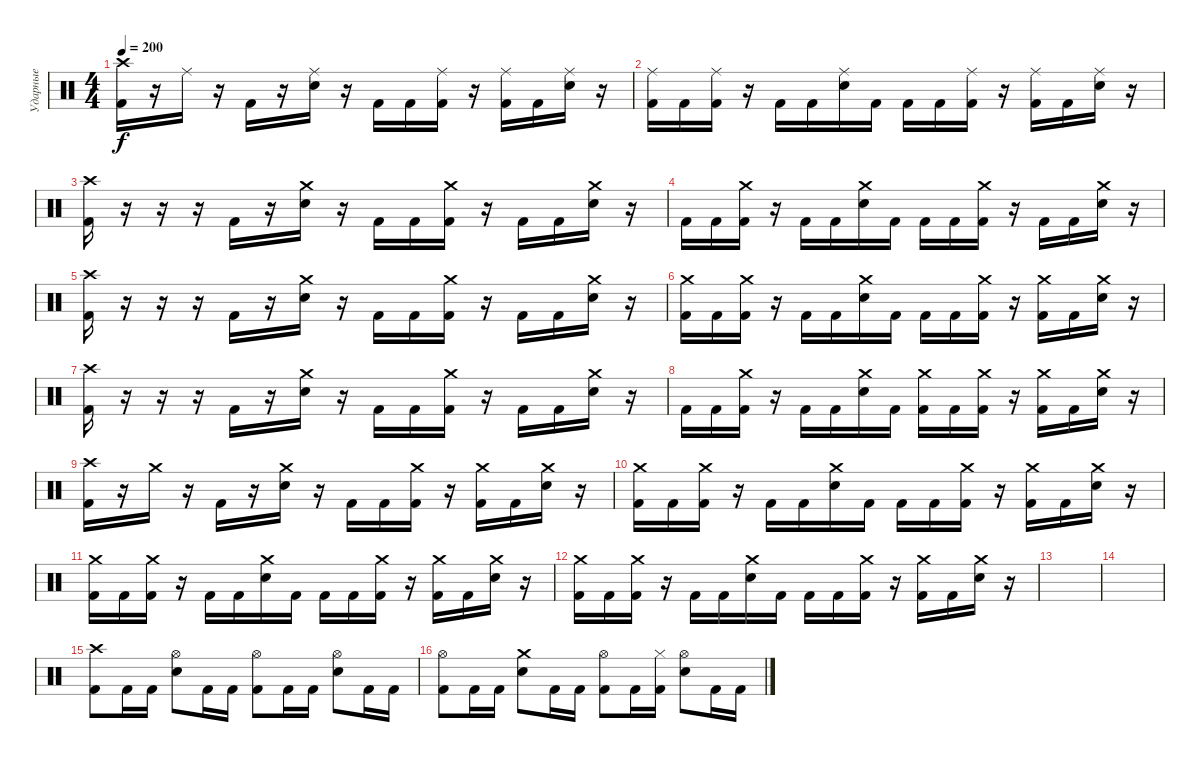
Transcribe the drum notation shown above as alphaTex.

\track ("Ударные" "Ударные") {instrument percussion}
\staff {score}
\articulation defaults
\ts (4 4)
\tempo 200
\clef neutral
\ks c
("Crash high (hit)" "Kick (hit) 2").16{dy f} r.16 "Ride (middle)".16 r.16 "Kick (hit) 2".16 r.16 ("Ride (middle)" "Electric Snare (hit)").16 r.16 "Kick (hit) 2".16 "Kick (hit) 2".16 ("Ride (middle)" "Kick (hit) 2").16 r.16 ("Ride (middle)" "Kick (hit) 2").16 "Kick (hit) 2".16 ("Ride (middle)" "Electric Snare (hit)").16 r.16 |
("Ride (middle)" "Kick (hit) 2").16 "Kick (hit) 2".16 ("Ride (middle)" "Kick (hit) 2").16 r.16 "Kick (hit) 2".16 "Kick (hit) 2".16 ("Ride (middle)" "Electric Snare (hit)").16 "Kick (hit) 2".16 "Kick (hit) 2".16 "Kick (hit) 2".16 ("Ride (middle)" "Kick (hit) 2").16 r.16 ("Ride (middle)" "Kick (hit) 2").16 "Kick (hit) 2".16 ("Ride (middle)" "Electric Snare (hit)").16 r.16 |
("Crash high (hit)" "Kick (hit) 2").16 r.16 r.16 r.16 "Kick (hit) 2".16 r.16 ("Crash medium (hit)" "Electric Snare (hit)").16 r.16 "Kick (hit) 2".16 "Kick (hit) 2".16 ("Crash medium (hit)" "Kick (hit) 2").16 r.16 "Kick (hit) 2".16 "Kick (hit) 2".16 ("Crash medium (hit)" "Electric Snare (hit)").16 r.16 |
"Kick (hit) 2".16 "Kick (hit) 2".16 ("Crash medium (hit)" "Kick (hit) 2").16 r.16 "Kick (hit) 2".16 "Kick (hit) 2".16 ("Crash medium (hit)" "Electric Snare (hit)").16 "Kick (hit) 2".16 "Kick (hit) 2".16 "Kick (hit) 2".16 ("Crash medium (hit)" "Kick (hit) 2").16 r.16 "Kick (hit) 2".16 "Kick (hit) 2".16 ("Crash medium (hit)" "Electric Snare (hit)").16 r.16 |
("Crash high (hit)" "Kick (hit) 2").16 r.16 r.16 r.16 "Kick (hit) 2".16 r.16 ("Crash medium (hit)" "Electric Snare (hit)").16 r.16 "Kick (hit) 2".16 "Kick (hit) 2".16 ("Crash medium (hit)" "Kick (hit) 2").16 r.16 "Kick (hit) 2".16 "Kick (hit) 2".16 ("Crash medium (hit)" "Electric Snare (hit)").16 r.16 |
("Crash medium (hit)" "Kick (hit) 2").16 "Kick (hit) 2".16 ("Crash medium (hit)" "Kick (hit) 2").16 r.16 "Kick (hit) 2".16 "Kick (hit) 2".16 ("Crash medium (hit)" "Electric Snare (hit)").16 "Kick (hit) 2".16 "Kick (hit) 2".16 "Kick (hit) 2".16 ("Crash medium (hit)" "Kick (hit) 2").16 r.16 ("Crash medium (hit)" "Kick (hit) 2").16 "Kick (hit) 2".16 ("Crash medium (hit)" "Electric Snare (hit)").16 r.16 |
("Crash high (hit)" "Kick (hit) 2").16 r.16 r.16 r.16 "Kick (hit) 2".16 r.16 ("Crash medium (hit)" "Electric Snare (hit)").16 r.16 "Kick (hit) 2".16 "Kick (hit) 2".16 ("Crash medium (hit)" "Kick (hit) 2").16 r.16 "Kick (hit) 2".16 "Kick (hit) 2".16 ("Crash medium (hit)" "Electric Snare (hit)").16 r.16 |
"Kick (hit) 2".16 "Kick (hit) 2".16 ("Crash medium (hit)" "Kick (hit) 2").16 r.16 "Kick (hit) 2".16 "Kick (hit) 2".16 ("Crash medium (hit)" "Electric Snare (hit)").16 "Kick (hit) 2".16 ("Crash medium (hit)" "Kick (hit) 2").16 "Kick (hit) 2".16 ("Crash medium (hit)" "Kick (hit) 2").16 r.16 ("Crash medium (hit)" "Kick (hit) 2").16 "Kick (hit) 2".16 ("Crash medium (hit)" "Electric Snare (hit)").16 r.16 |
("Crash high (hit)" "Kick (hit) 2").16 r.16 "Crash medium (hit)".16 r.16 "Kick (hit) 2".16 r.16 ("Crash medium (hit)" "Electric Snare (hit)").16 r.16 "Kick (hit) 2".16 "Kick (hit) 2".16 ("Crash medium (hit)" "Kick (hit) 2").16 r.16 ("Crash medium (hit)" "Kick (hit) 2").16 "Kick (hit) 2".16 ("Crash medium (hit)" "Electric Snare (hit)").16 r.16 |
("Crash medium (hit)" "Kick (hit) 2").16 "Kick (hit) 2".16 ("Crash medium (hit)" "Kick (hit) 2").16 r.16 "Kick (hit) 2".16 "Kick (hit) 2".16 ("Crash medium (hit)" "Electric Snare (hit)").16 "Kick (hit) 2".16 "Kick (hit) 2".16 "Kick (hit) 2".16 ("Crash medium (hit)" "Kick (hit) 2").16 r.16 ("Crash medium (hit)" "Kick (hit) 2").16 "Kick (hit) 2".16 ("Crash medium (hit)" "Electric Snare (hit)").16 r.16 |
("Crash medium (hit)" "Kick (hit) 2").16 "Kick (hit) 2".16 ("Crash medium (hit)" "Kick (hit) 2").16 r.16 "Kick (hit) 2".16 "Kick (hit) 2".16 ("Crash medium (hit)" "Electric Snare (hit)").16 "Kick (hit) 2".16 "Kick (hit) 2".16 "Kick (hit) 2".16 ("Crash medium (hit)" "Kick (hit) 2").16 r.16 ("Crash medium (hit)" "Kick (hit) 2").16 "Kick (hit) 2".16 ("Crash medium (hit)" "Electric Snare (hit)").16 r.16 |
("Crash medium (hit)" "Kick (hit) 2").16 "Kick (hit) 2".16 ("Crash medium (hit)" "Kick (hit) 2").16 r.16 "Kick (hit) 2".16 "Kick (hit) 2".16 ("Crash medium (hit)" "Electric Snare (hit)").16 "Kick (hit) 2".16 "Kick (hit) 2".16 "Kick (hit) 2".16 ("Crash medium (hit)" "Kick (hit) 2").16 r.16 ("Crash medium (hit)" "Kick (hit) 2").16 "Kick (hit) 2".16 ("Crash medium (hit)" "Electric Snare (hit)").16 r.16 |
|
|
("Crash high (hit)" "Kick (hit) 2").8 "Kick (hit) 2".16 "Kick (hit) 2".16 ("Hi-Hat (open)" "Electric Snare (hit)").8 "Kick (hit) 2".16 "Kick (hit) 2".16 ("Hi-Hat (open)" "Kick (hit) 2").8 "Kick (hit) 2".16 "Kick (hit) 2".16 ("Hi-Hat (open)" "Electric Snare (hit)").8 "Kick (hit) 2".16 "Kick (hit) 2".16 |
("Hi-Hat (open)" "Kick (hit) 2").8 "Kick (hit) 2".16 "Kick (hit) 2".16 ("Crash medium (hit)" "Electric Snare (hit)").8 "Kick (hit) 2".16 "Kick (hit) 2".16 ("Hi-Hat (open)" "Kick (hit) 2").8 "Kick (hit) 2".16 ("Hi-Hat (closed)" "Kick (hit) 2").16 ("Hi-Hat (open)" "Electric Snare (hit)").8 "Kick (hit) 2".16 "Kick (hit) 2".16
